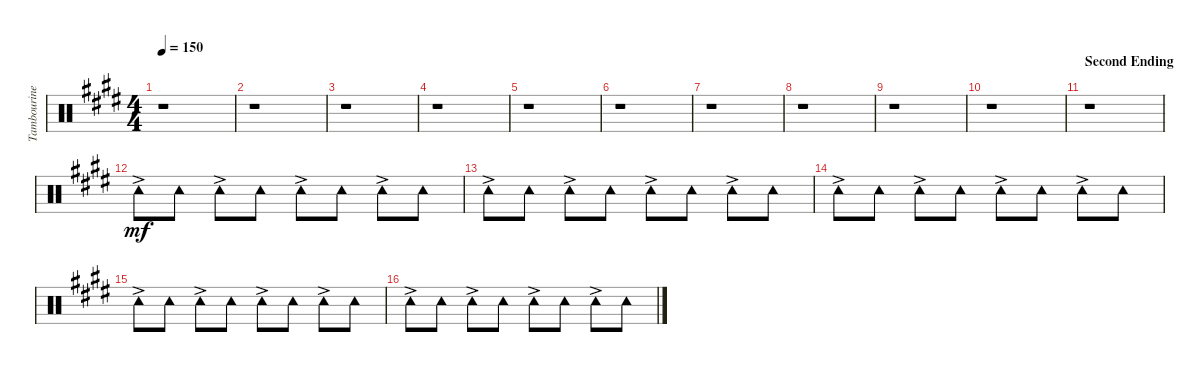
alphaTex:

\track ("Tambourine" "Tambourine") {instrument percussion}
\staff {score}
\articulation defaults
\ts (4 4)
\tempo 150
\clef neutral
\ks e
r.1{dy mf} |
r.1 |
r.1 |
r.1 |
r.1 |
r.1 |
r.1 |
r.1 |
r.1 |
r.1 |
\section ("" "Second Ending")
r.1 |
\section ("" "")
"Tambourine (hit)"{ac}.8 "Tambourine (hit)".8 "Tambourine (hit)"{ac}.8 "Tambourine (hit)".8 "Tambourine (hit)"{ac}.8 "Tambourine (hit)".8 "Tambourine (hit)"{ac}.8 "Tambourine (hit)".8 |
"Tambourine (hit)"{ac}.8 "Tambourine (hit)".8 "Tambourine (hit)"{ac}.8 "Tambourine (hit)".8 "Tambourine (hit)"{ac}.8 "Tambourine (hit)".8 "Tambourine (hit)"{ac}.8 "Tambourine (hit)".8 |
"Tambourine (hit)"{ac}.8 "Tambourine (hit)".8 "Tambourine (hit)"{ac}.8 "Tambourine (hit)".8 "Tambourine (hit)"{ac}.8 "Tambourine (hit)".8 "Tambourine (hit)"{ac}.8 "Tambourine (hit)".8 |
"Tambourine (hit)"{ac}.8 "Tambourine (hit)".8 "Tambourine (hit)"{ac}.8 "Tambourine (hit)".8 "Tambourine (hit)"{ac}.8 "Tambourine (hit)".8 "Tambourine (hit)"{ac}.8 "Tambourine (hit)".8 |
"Tambourine (hit)"{ac}.8 "Tambourine (hit)".8 "Tambourine (hit)"{ac}.8 "Tambourine (hit)".8 "Tambourine (hit)"{ac}.8 "Tambourine (hit)".8 "Tambourine (hit)"{ac}.8 "Tambourine (hit)".8
